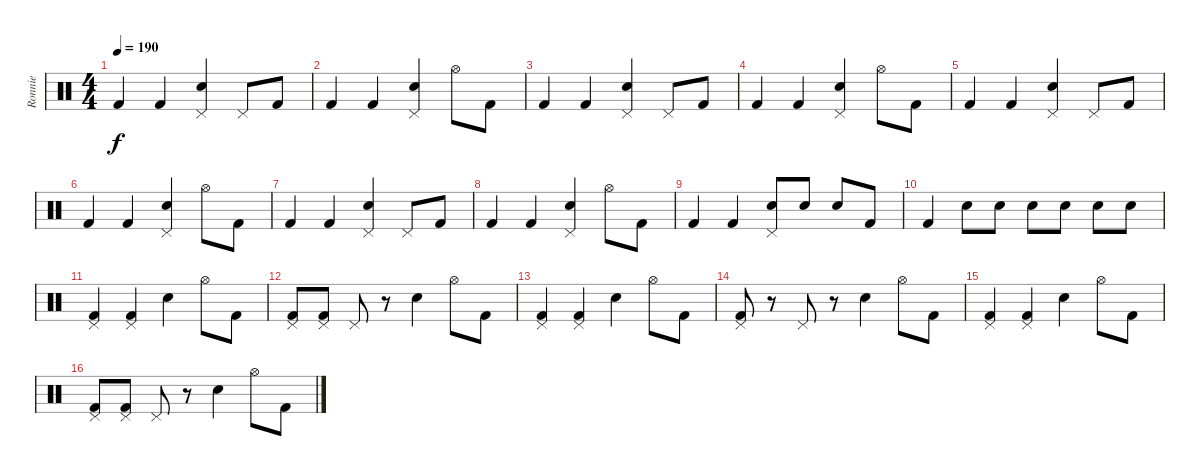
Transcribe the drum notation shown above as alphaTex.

\track ("Ronnie" "Ronnie") {instrument percussion}
\staff {score}
\articulation defaults
\ts (4 4)
\tempo 190
\clef neutral
\ks c "Kick (hit) 2".4{dy f} "Kick (hit) 2".4
("Electric Snare (hit)" "Pedal Hi-Hat (hit)").4 "Pedal Hi-Hat (hit)".8 "Kick (hit) 2".8 |
"Kick (hit) 2".4 "Kick (hit) 2".4 ("Electric Snare (hit)" "Pedal Hi-Hat (hit)").4 "Hi-Hat (open)".8 "Kick (hit) 2".8 |
"Kick (hit) 2".4 "Kick (hit) 2".4 ("Electric Snare (hit)" "Pedal Hi-Hat (hit)").4 "Pedal Hi-Hat (hit)".8 "Kick (hit) 2".8 |
"Kick (hit) 2".4 "Kick (hit) 2".4 ("Electric Snare (hit)" "Pedal Hi-Hat (hit)").4 "Hi-Hat (open)".8 "Kick (hit) 2".8 |
"Kick (hit) 2".4 "Kick (hit) 2".4 ("Electric Snare (hit)" "Pedal Hi-Hat (hit)").4 "Pedal Hi-Hat (hit)".8 "Kick (hit) 2".8 |
"Kick (hit) 2".4 "Kick (hit) 2".4 ("Electric Snare (hit)" "Pedal Hi-Hat (hit)").4 "Hi-Hat (open)".8 "Kick (hit) 2".8 |
"Kick (hit) 2".4 "Kick (hit) 2".4 ("Electric Snare (hit)" "Pedal Hi-Hat (hit)").4 "Pedal Hi-Hat (hit)".8 "Kick (hit) 2".8 |
"Kick (hit) 2".4 "Kick (hit) 2".4 ("Electric Snare (hit)" "Pedal Hi-Hat (hit)").4 "Hi-Hat (open)".8 "Kick (hit) 2".8 |
"Kick (hit) 2".4 "Kick (hit) 2".4 ("Pedal Hi-Hat (hit)" "Electric Snare (hit)").8 "Electric Snare (hit)".8 "Electric Snare (hit)".8 "Kick (hit) 2".8 |
"Kick (hit) 2".4 "Electric Snare (hit)".8 "Electric Snare (hit)".8 "Electric Snare (hit)".8 "Electric Snare (hit)".8 "Electric Snare (hit)".8 "Electric Snare (hit)".8 |
("Pedal Hi-Hat (hit)" "Kick (hit) 2").4 ("Pedal Hi-Hat (hit)" "Kick (hit) 2").4 "Electric Snare (hit)".4 "Hi-Hat (open)".8 "Kick (hit) 2".8 |
("Pedal Hi-Hat (hit)" "Kick (hit) 2").8 ("Pedal Hi-Hat (hit)" "Kick (hit) 2").8 "Pedal Hi-Hat (hit)".8 r.8 "Electric Snare (hit)".4 "Hi-Hat (open)".8 "Kick (hit) 2".8 |
("Pedal Hi-Hat (hit)" "Kick (hit) 2").4 ("Pedal Hi-Hat (hit)" "Kick (hit) 2").4 "Electric Snare (hit)".4 "Hi-Hat (open)".8 "Kick (hit) 2".8 |
("Pedal Hi-Hat (hit)" "Kick (hit) 2").8 r.8 "Pedal Hi-Hat (hit)".8 r.8 "Electric Snare (hit)".4 "Hi-Hat (open)".8 "Kick (hit) 2".8 |
("Pedal Hi-Hat (hit)" "Kick (hit) 2").4 ("Pedal Hi-Hat (hit)" "Kick (hit) 2").4 "Electric Snare (hit)".4 "Hi-Hat (open)".8 "Kick (hit) 2".8 |
("Pedal Hi-Hat (hit)" "Kick (hit) 2").8 ("Pedal Hi-Hat (hit)" "Kick (hit) 2").8 "Pedal Hi-Hat (hit)".8 r.8 "Electric Snare (hit)".4 "Hi-Hat (open)".8 "Kick (hit) 2".8
